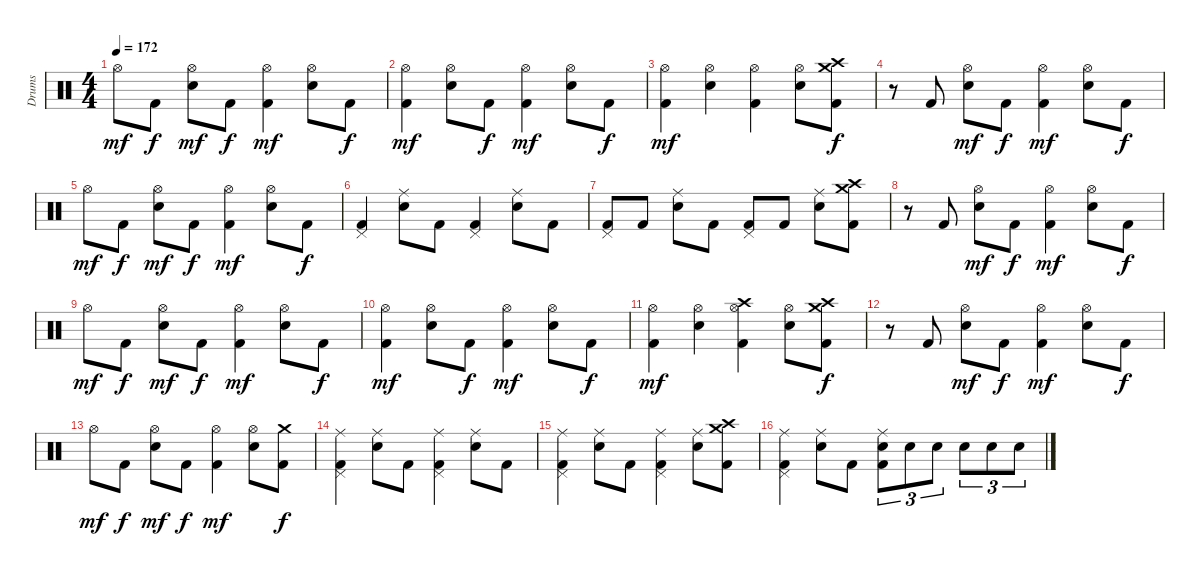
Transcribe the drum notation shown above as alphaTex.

\track ("Drums" "Drums") {instrument percussion}
\staff {score}
\articulation defaults
\ts (4 4)
\tempo 172
\clef neutral
\ks c "Hi-Hat (open)".8{dy mf} "Kick (hit) 2".8{dy f}
("Hi-Hat (open)" "Electric Snare (hit)").8{dy mf} "Kick (hit) 2".8{dy f} ("Hi-Hat (open)" "Kick (hit) 2").4{dy mf} ("Hi-Hat (open)" "Electric Snare (hit)").8 "Kick (hit) 2".8{dy f} |
("Hi-Hat (open)" "Kick (hit) 2").4{dy mf} ("Hi-Hat (open)" "Electric Snare (hit)").8 "Kick (hit) 2".8{dy f} ("Hi-Hat (open)" "Kick (hit) 2").4{dy mf} ("Hi-Hat (open)" "Electric Snare (hit)").8 "Kick (hit) 2".8{dy f} |
("Hi-Hat (open)" "Kick (hit) 2").4{dy mf} ("Hi-Hat (open)" "Electric Snare (hit)").4 ("Hi-Hat (open)" "Kick (hit) 2").4 ("Hi-Hat (open)" "Electric Snare (hit)").8 ("Crash medium (hit)" "Crash high (hit)" "Kick (hit) 2").8{dy f} |
r.8 "Kick (hit) 2".8 ("Hi-Hat (open)" "Electric Snare (hit)").8{dy mf} "Kick (hit) 2".8{dy f} ("Hi-Hat (open)" "Kick (hit) 2").4{dy mf} ("Hi-Hat (open)" "Electric Snare (hit)").8 "Kick (hit) 2".8{dy f} |
"Hi-Hat (open)".8{dy mf} "Kick (hit) 2".8{dy f} ("Hi-Hat (open)" "Electric Snare (hit)").8{dy mf} "Kick (hit) 2".8{dy f} ("Hi-Hat (open)" "Kick (hit) 2").4{dy mf} ("Hi-Hat (open)" "Electric Snare (hit)").8 "Kick (hit) 2".8{dy f} |
("Pedal Hi-Hat (hit)" "Kick (hit) 2").4 ("Ride (middle)" "Electric Snare (hit)").8 "Kick (hit) 2".8 ("Pedal Hi-Hat (hit)" "Kick (hit) 2").4 ("Ride (middle)" "Electric Snare (hit)").8 "Kick (hit) 2".8 |
("Pedal Hi-Hat (hit)" "Kick (hit) 2").8 "Kick (hit) 2".8 ("Ride (middle)" "Electric Snare (hit)").8 "Kick (hit) 2".8 ("Pedal Hi-Hat (hit)" "Kick (hit) 2").8 "Kick (hit) 2".8 ("Ride (middle)" "Electric Snare (hit)").8 ("Crash medium (hit)" "Crash high (hit)" "Kick (hit) 2").8 |
\section ("" "")
r.8 "Kick (hit) 2".8 ("Hi-Hat (open)" "Electric Snare (hit)").8{dy mf} "Kick (hit) 2".8{dy f} ("Hi-Hat (open)" "Kick (hit) 2").4{dy mf} ("Hi-Hat (open)" "Electric Snare (hit)").8 "Kick (hit) 2".8{dy f} |
"Hi-Hat (open)".8{dy mf} "Kick (hit) 2".8{dy f} ("Hi-Hat (open)" "Electric Snare (hit)").8{dy mf} "Kick (hit) 2".8{dy f} ("Hi-Hat (open)" "Kick (hit) 2").4{dy mf} ("Hi-Hat (open)" "Electric Snare (hit)").8 "Kick (hit) 2".8{dy f} |
("Hi-Hat (open)" "Kick (hit) 2").4{dy mf} ("Hi-Hat (open)" "Electric Snare (hit)").8 "Kick (hit) 2".8{dy f} ("Hi-Hat (open)" "Kick (hit) 2").4{dy mf} ("Hi-Hat (open)" "Electric Snare (hit)").8 "Kick (hit) 2".8{dy f} |
("Hi-Hat (open)" "Kick (hit) 2").4{dy mf} ("Hi-Hat (open)" "Electric Snare (hit)").4 ("Hi-Hat (open)" "Crash high (hit)" "Kick (hit) 2").4 ("Hi-Hat (open)" "Electric Snare (hit)").8 ("Crash medium (hit)" "Crash high (hit)" "Kick (hit) 2").8{dy f} |
r.8 "Kick (hit) 2".8 ("Hi-Hat (open)" "Electric Snare (hit)").8{dy mf} "Kick (hit) 2".8{dy f} ("Hi-Hat (open)" "Kick (hit) 2").4{dy mf} ("Hi-Hat (open)" "Electric Snare (hit)").8 "Kick (hit) 2".8{dy f} |
"Hi-Hat (open)".8{dy mf} "Kick (hit) 2".8{dy f} ("Hi-Hat (open)" "Electric Snare (hit)").8{dy mf} "Kick (hit) 2".8{dy f} ("Hi-Hat (open)" "Kick (hit) 2").4{dy mf} ("Hi-Hat (open)" "Electric Snare (hit)").8 ("Crash medium (hit)" "Kick (hit) 2").8{dy f} |
("Pedal Hi-Hat (hit)" "Ride (middle)" "Kick (hit) 2").4 ("Ride (middle)" "Electric Snare (hit)").8 "Kick (hit) 2".8 ("Pedal Hi-Hat (hit)" "Ride (middle)" "Kick (hit) 2").4 ("Ride (middle)" "Electric Snare (hit)").8 "Kick (hit) 2".8 |
("Pedal Hi-Hat (hit)" "Ride (middle)" "Kick (hit) 2").4 ("Ride (middle)" "Electric Snare (hit)").8 "Kick (hit) 2".8 ("Pedal Hi-Hat (hit)" "Ride (middle)" "Kick (hit) 2").4 ("Ride (middle)" "Electric Snare (hit)").8 ("Crash medium (hit)" "Crash high (hit)" "Kick (hit) 2").8 |
\section ("" "")
("Pedal Hi-Hat (hit)" "Ride (middle)" "Kick (hit) 2").4 ("Ride (middle)" "Electric Snare (hit)").8 "Kick (hit) 2".8 ("Ride (middle)" "Electric Snare (hit)" "Kick (hit) 2").8{tu (3 2)} "Electric Snare (hit)".8{tu (3 2)} "Electric Snare (hit)".8{tu (3 2)} "Electric Snare (hit)".8{tu (3 2)} "Electric Snare (hit)".8{tu (3 2)} "Electric Snare (hit)".8{tu (3 2)}
